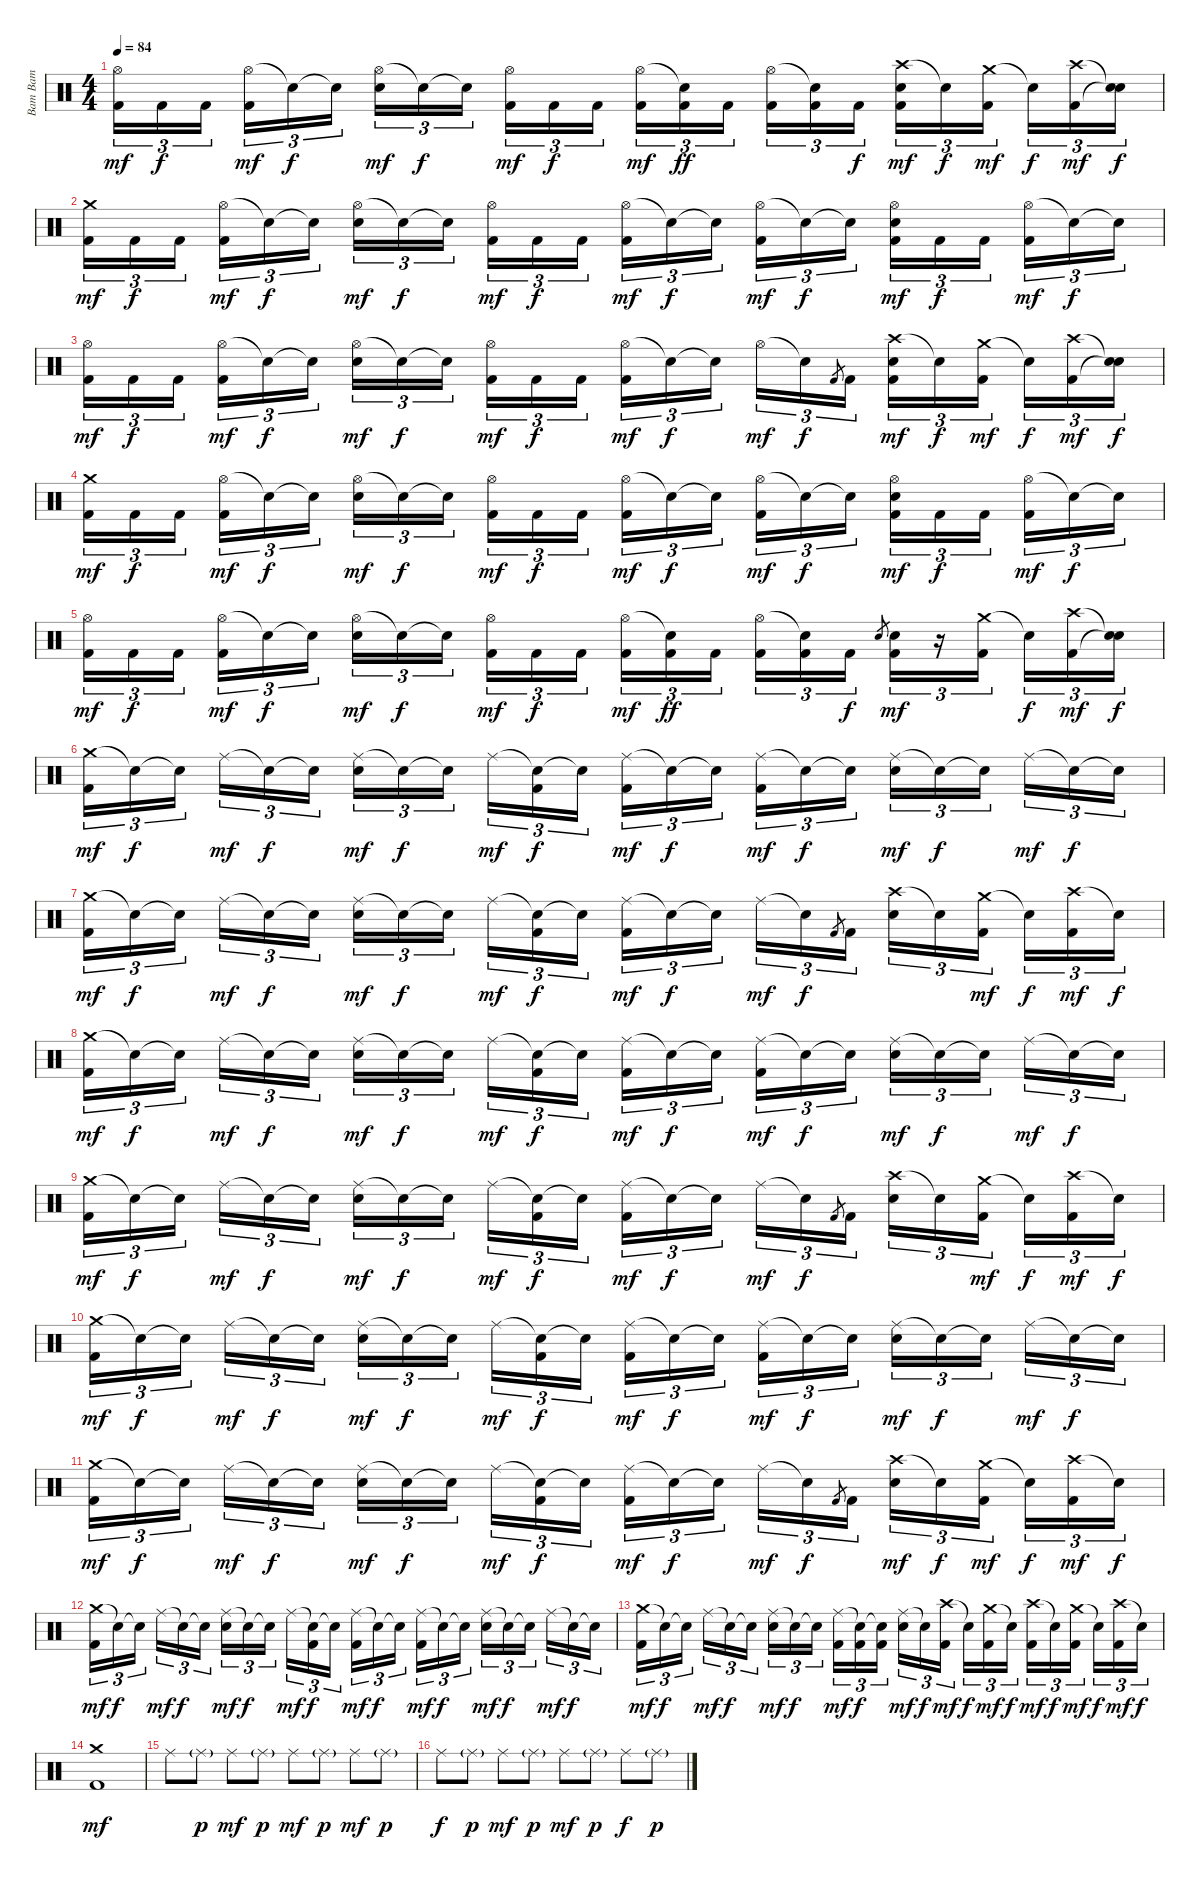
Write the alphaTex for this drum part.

\track ("Bam Bam" "Bam Bam") {instrument percussion}
\staff {score}
\articulation defaults
\ts (4 4)
\tempo 84
\clef neutral
\ks c
("Hi-Hat (open)" "Kick (hit) 2").16{tu (3 2) dy mf} "Kick (hit) 2".16{tu (3 2) dy f} "Kick (hit) 2".16{tu (3 2) beam splitsecondary} ("Hi-Hat (open)" "Kick (hit) 2").16{tu (3 2) dy mf} "Snare (hit)"{t}.16{tu (3 2) dy f} "Snare (hit)"{t}.16{tu (3 2)} ("Hi-Hat (open)" "Electric Snare (hit)").16{tu (3 2) dy mf} "Snare (hit)"{t}.16{tu (3 2) dy f} "Snare (hit)"{t}.16{tu (3 2) beam splitsecondary} ("Hi-Hat (open)" "Kick (hit) 2").16{tu (3 2) dy mf} "Kick (hit) 2".16{tu (3 2) dy f} "Kick (hit) 2".16{tu (3 2)} ("Hi-Hat (open)" "Kick (hit) 2").16{tu (3 2) dy mf} ("Snare (hit)"{t} "Kick (hit) 2").16{tu (3 2) dy ff} "Kick (hit) 2".16{tu (3 2) beam splitsecondary} ("Hi-Hat (open)" "Kick (hit) 2").16{tu (3 2)} ("Snare (hit)"{t} "Kick (hit) 2").16{tu (3 2)} "Kick (hit) 2".16{tu (3 2) dy f} ("Crash high (hit)" "Electric Snare (hit)" "Kick (hit) 2").16{tu (3 2) dy mf} "Snare (hit)"{t}.16{tu (3 2) dy f} ("Crash medium (hit)" "Kick (hit) 2").16{tu (3 2) dy mf beam splitsecondary} "Snare (hit)"{t}.16{tu (3 2) dy f} ("Crash high (hit)" "Kick (hit) 2").16{tu (3 2) dy mf} ("Snare (hit)"{t} "Snare (hit)"{t}).16{tu (3 2) dy f} |
("Crash medium (hit)" "Kick (hit) 2").16{tu (3 2) dy mf} "Kick (hit) 2".16{tu (3 2) dy f} "Kick (hit) 2".16{tu (3 2) beam splitsecondary} ("Hi-Hat (open)" "Kick (hit) 2").16{tu (3 2) dy mf} "Snare (hit)"{t}.16{tu (3 2) dy f} "Snare (hit)"{t}.16{tu (3 2)} ("Hi-Hat (open)" "Electric Snare (hit)").16{tu (3 2) dy mf} "Snare (hit)"{t}.16{tu (3 2) dy f} "Snare (hit)"{t}.16{tu (3 2) beam splitsecondary} ("Hi-Hat (open)" "Kick (hit) 2").16{tu (3 2) dy mf} "Kick (hit) 2".16{tu (3 2) dy f} "Kick (hit) 2".16{tu (3 2)} ("Hi-Hat (open)" "Kick (hit) 2").16{tu (3 2) dy mf} "Snare (hit)"{t}.16{tu (3 2) dy f} "Snare (hit)"{t}.16{tu (3 2) beam splitsecondary} ("Hi-Hat (open)" "Kick (hit) 2").16{tu (3 2) dy mf} "Snare (hit)"{t}.16{tu (3 2) dy f} "Snare (hit)"{t}.16{tu (3 2)} ("Hi-Hat (open)" "Electric Snare (hit)" "Kick (hit) 2").16{tu (3 2) dy mf} "Kick (hit) 2".16{tu (3 2) dy f} "Kick (hit) 2".16{tu (3 2) beam splitsecondary} ("Hi-Hat (open)" "Kick (hit) 2").16{tu (3 2) dy mf} "Snare (hit)"{t}.16{tu (3 2) dy f} "Snare (hit)"{t}.16{tu (3 2)} |
("Hi-Hat (open)" "Kick (hit) 2").16{tu (3 2) dy mf} "Kick (hit) 2".16{tu (3 2) dy f} "Kick (hit) 2".16{tu (3 2) beam splitsecondary} ("Hi-Hat (open)" "Kick (hit) 2").16{tu (3 2) dy mf} "Snare (hit)"{t}.16{tu (3 2) dy f} "Snare (hit)"{t}.16{tu (3 2)} ("Hi-Hat (open)" "Electric Snare (hit)").16{tu (3 2) dy mf} "Snare (hit)"{t}.16{tu (3 2) dy f} "Snare (hit)"{t}.16{tu (3 2) beam splitsecondary} ("Hi-Hat (open)" "Kick (hit) 2").16{tu (3 2) dy mf} "Kick (hit) 2".16{tu (3 2) dy f} "Kick (hit) 2".16{tu (3 2)} ("Hi-Hat (open)" "Kick (hit) 2").16{tu (3 2) dy mf} "Snare (hit)"{t}.16{tu (3 2) dy f} "Snare (hit)"{t}.16{tu (3 2) beam splitsecondary} "Hi-Hat (open)".16{tu (3 2) dy mf} "Snare (hit)"{t}.16{tu (3 2) dy f} "Kick (hit) 2".8{gr} "Kick (hit) 2".16{tu (3 2)} ("Crash high (hit)" "Electric Snare (hit)" "Kick (hit) 2").16{tu (3 2) dy mf} "Snare (hit)"{t}.16{tu (3 2) dy f} ("Crash medium (hit)" "Kick (hit) 2").16{tu (3 2) dy mf beam splitsecondary} "Snare (hit)"{t}.16{tu (3 2) dy f} ("Crash high (hit)" "Kick (hit) 2").16{tu (3 2) dy mf} ("Snare (hit)"{t} "Snare (hit)"{t}).16{tu (3 2) dy f} |
("Crash medium (hit)" "Kick (hit) 2").16{tu (3 2) dy mf} "Kick (hit) 2".16{tu (3 2) dy f} "Kick (hit) 2".16{tu (3 2) beam splitsecondary} ("Hi-Hat (open)" "Kick (hit) 2").16{tu (3 2) dy mf} "Snare (hit)"{t}.16{tu (3 2) dy f} "Snare (hit)"{t}.16{tu (3 2)} ("Hi-Hat (open)" "Electric Snare (hit)").16{tu (3 2) dy mf} "Snare (hit)"{t}.16{tu (3 2) dy f} "Snare (hit)"{t}.16{tu (3 2) beam splitsecondary} ("Hi-Hat (open)" "Kick (hit) 2").16{tu (3 2) dy mf} "Kick (hit) 2".16{tu (3 2) dy f} "Kick (hit) 2".16{tu (3 2)} ("Hi-Hat (open)" "Kick (hit) 2").16{tu (3 2) dy mf} "Snare (hit)"{t}.16{tu (3 2) dy f} "Snare (hit)"{t}.16{tu (3 2) beam splitsecondary} ("Hi-Hat (open)" "Kick (hit) 2").16{tu (3 2) dy mf} "Snare (hit)"{t}.16{tu (3 2) dy f} "Snare (hit)"{t}.16{tu (3 2)} ("Hi-Hat (open)" "Electric Snare (hit)" "Kick (hit) 2").16{tu (3 2) dy mf} "Kick (hit) 2".16{tu (3 2) dy f} "Kick (hit) 2".16{tu (3 2) beam splitsecondary} ("Hi-Hat (open)" "Kick (hit) 2").16{tu (3 2) dy mf} "Snare (hit)"{t}.16{tu (3 2) dy f} "Snare (hit)"{t}.16{tu (3 2)} |
("Hi-Hat (open)" "Kick (hit) 2").16{tu (3 2) dy mf} "Kick (hit) 2".16{tu (3 2) dy f} "Kick (hit) 2".16{tu (3 2) beam splitsecondary} ("Hi-Hat (open)" "Kick (hit) 2").16{tu (3 2) dy mf} "Snare (hit)"{t}.16{tu (3 2) dy f} "Snare (hit)"{t}.16{tu (3 2)} ("Hi-Hat (open)" "Electric Snare (hit)").16{tu (3 2) dy mf} "Snare (hit)"{t}.16{tu (3 2) dy f} "Snare (hit)"{t}.16{tu (3 2) beam splitsecondary} ("Hi-Hat (open)" "Kick (hit) 2").16{tu (3 2) dy mf} "Kick (hit) 2".16{tu (3 2) dy f} "Kick (hit) 2".16{tu (3 2)} ("Hi-Hat (open)" "Kick (hit) 2").16{tu (3 2) dy mf} ("Snare (hit)"{t} "Kick (hit) 2").16{tu (3 2) dy ff} "Kick (hit) 2".16{tu (3 2) beam splitsecondary} ("Hi-Hat (open)" "Kick (hit) 2").16{tu (3 2)} ("Snare (hit)"{t} "Kick (hit) 2").16{tu (3 2)} "Kick (hit) 2".16{tu (3 2) dy f} "Electric Snare (hit)".8{gr} ("Electric Snare (hit)" "Kick (hit) 2").16{tu (3 2) dy mf} r.16{tu (3 2)} ("Crash medium (hit)" "Kick (hit) 2").16{tu (3 2) beam splitsecondary} "Snare (hit)"{t}.16{tu (3 2) dy f} ("Crash high (hit)" "Kick (hit) 2").16{tu (3 2) dy mf} ("Snare (hit)"{t} "Snare (hit)"{t}).16{tu (3 2) dy f} |
("Crash medium (hit)" "Kick (hit) 2").16{tu (3 2) dy mf} "Snare (hit)"{t}.16{tu (3 2) dy f} "Snare (hit)"{t}.16{tu (3 2) beam splitsecondary} "Ride (middle)".16{tu (3 2) dy mf} "Snare (hit)"{t}.16{tu (3 2) dy f} "Snare (hit)"{t}.16{tu (3 2)} ("Ride (middle)" "Electric Snare (hit)").16{tu (3 2) dy mf} "Snare (hit)"{t}.16{tu (3 2) dy f} "Snare (hit)"{t}.16{tu (3 2) beam splitsecondary} "Ride (middle)".16{tu (3 2) dy mf} ("Snare (hit)"{t} "Kick (hit) 2").16{tu (3 2) dy f} "Snare (hit)"{t}.16{tu (3 2)} ("Ride (middle)" "Kick (hit) 2").16{tu (3 2) dy mf} "Snare (hit)"{t}.16{tu (3 2) dy f} "Snare (hit)"{t}.16{tu (3 2) beam splitsecondary} ("Ride (middle)" "Kick (hit) 2").16{tu (3 2) dy mf} "Snare (hit)"{t}.16{tu (3 2) dy f} "Snare (hit)"{t}.16{tu (3 2)} ("Ride (middle)" "Electric Snare (hit)").16{tu (3 2) dy mf} "Snare (hit)"{t}.16{tu (3 2) dy f} "Snare (hit)"{t}.16{tu (3 2) beam splitsecondary} "Ride (middle)".16{tu (3 2) dy mf} "Snare (hit)"{t}.16{tu (3 2) dy f} "Snare (hit)"{t}.16{tu (3 2)} |
("Crash medium (hit)" "Kick (hit) 2").16{tu (3 2) dy mf} "Snare (hit)"{t}.16{tu (3 2) dy f} "Snare (hit)"{t}.16{tu (3 2) beam splitsecondary} "Ride (middle)".16{tu (3 2) dy mf} "Snare (hit)"{t}.16{tu (3 2) dy f} "Snare (hit)"{t}.16{tu (3 2)} ("Ride (middle)" "Electric Snare (hit)").16{tu (3 2) dy mf} "Snare (hit)"{t}.16{tu (3 2) dy f} "Snare (hit)"{t}.16{tu (3 2) beam splitsecondary} "Ride (middle)".16{tu (3 2) dy mf} ("Snare (hit)"{t} "Kick (hit) 2").16{tu (3 2) dy f} "Snare (hit)"{t}.16{tu (3 2)} ("Ride (middle)" "Kick (hit) 2").16{tu (3 2) dy mf} "Snare (hit)"{t}.16{tu (3 2) dy f} "Snare (hit)"{t}.16{tu (3 2) beam splitsecondary} "Ride (middle)".16{tu (3 2) dy mf} "Snare (hit)"{t}.16{tu (3 2) dy f} "Kick (hit) 2".8{gr} "Kick (hit) 2".16{tu (3 2)} ("Crash high (hit)" "Electric Snare (hit)").16{tu (3 2)} "Snare (hit)"{t}.16{tu (3 2)} ("Crash medium (hit)" "Kick (hit) 2").16{tu (3 2) dy mf beam splitsecondary} "Snare (hit)"{t}.16{tu (3 2) dy f} ("Crash high (hit)" "Kick (hit) 2").16{tu (3 2) dy mf} "Snare (hit)"{t}.16{tu (3 2) dy f} |
("Crash medium (hit)" "Kick (hit) 2").16{tu (3 2) dy mf} "Snare (hit)"{t}.16{tu (3 2) dy f} "Snare (hit)"{t}.16{tu (3 2) beam splitsecondary} "Ride (middle)".16{tu (3 2) dy mf} "Snare (hit)"{t}.16{tu (3 2) dy f} "Snare (hit)"{t}.16{tu (3 2)} ("Ride (middle)" "Electric Snare (hit)").16{tu (3 2) dy mf} "Snare (hit)"{t}.16{tu (3 2) dy f} "Snare (hit)"{t}.16{tu (3 2) beam splitsecondary} "Ride (middle)".16{tu (3 2) dy mf} ("Snare (hit)"{t} "Kick (hit) 2").16{tu (3 2) dy f} "Snare (hit)"{t}.16{tu (3 2)} ("Ride (middle)" "Kick (hit) 2").16{tu (3 2) dy mf} "Snare (hit)"{t}.16{tu (3 2) dy f} "Snare (hit)"{t}.16{tu (3 2) beam splitsecondary} ("Ride (middle)" "Kick (hit) 2").16{tu (3 2) dy mf} "Snare (hit)"{t}.16{tu (3 2) dy f} "Snare (hit)"{t}.16{tu (3 2)} ("Ride (middle)" "Electric Snare (hit)").16{tu (3 2) dy mf} "Snare (hit)"{t}.16{tu (3 2) dy f} "Snare (hit)"{t}.16{tu (3 2) beam splitsecondary} "Ride (middle)".16{tu (3 2) dy mf} "Snare (hit)"{t}.16{tu (3 2) dy f} "Snare (hit)"{t}.16{tu (3 2)} |
("Crash medium (hit)" "Kick (hit) 2").16{tu (3 2) dy mf} "Snare (hit)"{t}.16{tu (3 2) dy f} "Snare (hit)"{t}.16{tu (3 2) beam splitsecondary} "Ride (middle)".16{tu (3 2) dy mf} "Snare (hit)"{t}.16{tu (3 2) dy f} "Snare (hit)"{t}.16{tu (3 2)} ("Ride (middle)" "Electric Snare (hit)").16{tu (3 2) dy mf} "Snare (hit)"{t}.16{tu (3 2) dy f} "Snare (hit)"{t}.16{tu (3 2) beam splitsecondary} "Ride (middle)".16{tu (3 2) dy mf} ("Snare (hit)"{t} "Kick (hit) 2").16{tu (3 2) dy f} "Snare (hit)"{t}.16{tu (3 2)} ("Ride (middle)" "Kick (hit) 2").16{tu (3 2) dy mf} "Snare (hit)"{t}.16{tu (3 2) dy f} "Snare (hit)"{t}.16{tu (3 2) beam splitsecondary} "Ride (middle)".16{tu (3 2) dy mf} "Snare (hit)"{t}.16{tu (3 2) dy f} "Kick (hit) 2".8{gr} "Kick (hit) 2".16{tu (3 2)} ("Crash high (hit)" "Electric Snare (hit)").16{tu (3 2)} "Snare (hit)"{t}.16{tu (3 2)} ("Crash medium (hit)" "Kick (hit) 2").16{tu (3 2) dy mf beam splitsecondary} "Snare (hit)"{t}.16{tu (3 2) dy f} ("Crash high (hit)" "Kick (hit) 2").16{tu (3 2) dy mf} "Snare (hit)"{t}.16{tu (3 2) dy f} |
("Crash medium (hit)" "Kick (hit) 2").16{tu (3 2) dy mf} "Snare (hit)"{t}.16{tu (3 2) dy f} "Snare (hit)"{t}.16{tu (3 2) beam splitsecondary} "Ride (middle)".16{tu (3 2) dy mf} "Snare (hit)"{t}.16{tu (3 2) dy f} "Snare (hit)"{t}.16{tu (3 2)} ("Ride (middle)" "Electric Snare (hit)").16{tu (3 2) dy mf} "Snare (hit)"{t}.16{tu (3 2) dy f} "Snare (hit)"{t}.16{tu (3 2) beam splitsecondary} "Ride (middle)".16{tu (3 2) dy mf} ("Snare (hit)"{t} "Kick (hit) 2").16{tu (3 2) dy f} "Snare (hit)"{t}.16{tu (3 2)} ("Ride (middle)" "Kick (hit) 2").16{tu (3 2) dy mf} "Snare (hit)"{t}.16{tu (3 2) dy f} "Snare (hit)"{t}.16{tu (3 2) beam splitsecondary} ("Ride (middle)" "Kick (hit) 2").16{tu (3 2) dy mf} "Snare (hit)"{t}.16{tu (3 2) dy f} "Snare (hit)"{t}.16{tu (3 2)} ("Ride (middle)" "Electric Snare (hit)").16{tu (3 2) dy mf} "Snare (hit)"{t}.16{tu (3 2) dy f} "Snare (hit)"{t}.16{tu (3 2) beam splitsecondary} "Ride (middle)".16{tu (3 2) dy mf} "Snare (hit)"{t}.16{tu (3 2) dy f} "Snare (hit)"{t}.16{tu (3 2)} |
("Crash medium (hit)" "Kick (hit) 2").16{tu (3 2) dy mf} "Snare (hit)"{t}.16{tu (3 2) dy f} "Snare (hit)"{t}.16{tu (3 2) beam splitsecondary} "Ride (middle)".16{tu (3 2) dy mf} "Snare (hit)"{t}.16{tu (3 2) dy f} "Snare (hit)"{t}.16{tu (3 2)} ("Ride (middle)" "Electric Snare (hit)").16{tu (3 2) dy mf} "Snare (hit)"{t}.16{tu (3 2) dy f} "Snare (hit)"{t}.16{tu (3 2) beam splitsecondary} "Ride (middle)".16{tu (3 2) dy mf} ("Snare (hit)"{t} "Kick (hit) 2").16{tu (3 2) dy f} "Snare (hit)"{t}.16{tu (3 2)} ("Ride (middle)" "Kick (hit) 2").16{tu (3 2) dy mf} "Snare (hit)"{t}.16{tu (3 2) dy f} "Snare (hit)"{t}.16{tu (3 2) beam splitsecondary} "Ride (middle)".16{tu (3 2) dy mf} "Snare (hit)"{t}.16{tu (3 2) dy f} "Kick (hit) 2".8{gr} "Kick (hit) 2".16{tu (3 2)} ("Crash high (hit)" "Electric Snare (hit)").16{tu (3 2) dy mf} "Snare (hit)"{t}.16{tu (3 2) dy f} ("Crash medium (hit)" "Kick (hit) 2").16{tu (3 2) dy mf beam splitsecondary} "Snare (hit)"{t}.16{tu (3 2) dy f} ("Crash high (hit)" "Kick (hit) 2").16{tu (3 2) dy mf} "Snare (hit)"{t}.16{tu (3 2) dy f} |
("Crash medium (hit)" "Kick (hit) 2").16{tu (3 2) dy mf} "Snare (hit)"{t}.16{tu (3 2) dy f} "Snare (hit)"{t}.16{tu (3 2) beam splitsecondary} "Ride (middle)".16{tu (3 2) dy mf} "Snare (hit)"{t}.16{tu (3 2) dy f} "Snare (hit)"{t}.16{tu (3 2)} ("Ride (middle)" "Electric Snare (hit)").16{tu (3 2) dy mf} "Snare (hit)"{t}.16{tu (3 2) dy f} "Snare (hit)"{t}.16{tu (3 2) beam splitsecondary} "Ride (middle)".16{tu (3 2) dy mf} ("Snare (hit)"{t} "Kick (hit) 2").16{tu (3 2) dy f} "Snare (hit)"{t}.16{tu (3 2)} ("Ride (middle)" "Kick (hit) 2").16{tu (3 2) dy mf} "Snare (hit)"{t}.16{tu (3 2) dy f} "Snare (hit)"{t}.16{tu (3 2) beam splitsecondary} ("Ride (middle)" "Kick (hit) 2").16{tu (3 2) dy mf} "Snare (hit)"{t}.16{tu (3 2) dy f} "Snare (hit)"{t}.16{tu (3 2)} ("Ride (middle)" "Electric Snare (hit)").16{tu (3 2) dy mf} "Snare (hit)"{t}.16{tu (3 2) dy f} "Snare (hit)"{t}.16{tu (3 2) beam splitsecondary} "Ride (middle)".16{tu (3 2) dy mf} "Snare (hit)"{t}.16{tu (3 2) dy f} "Snare (hit)"{t}.16{tu (3 2)} |
("Crash medium (hit)" "Kick (hit) 2").16{tu (3 2) dy mf} "Snare (hit)"{t}.16{tu (3 2) dy f} "Snare (hit)"{t}.16{tu (3 2) beam splitsecondary} "Ride (middle)".16{tu (3 2) dy mf} "Snare (hit)"{t}.16{tu (3 2) dy f} "Snare (hit)"{t}.16{tu (3 2)} ("Ride (middle)" "Electric Snare (hit)").16{tu (3 2) dy mf} "Snare (hit)"{t}.16{tu (3 2) dy f} "Snare (hit)"{t}.16{tu (3 2) beam splitsecondary} ("Ride (middle)" "Kick (hit) 2").16{tu (3 2) dy mf} ("Snare (hit)"{t} "Kick (hit) 2").16{tu (3 2) dy f} ("Snare (hit)"{t} "Kick (hit) 2").16{tu (3 2)} ("Ride (middle)" "Electric Snare (hit)").16{tu (3 2) dy mf} "Snare (hit)"{t}.16{tu (3 2) dy f} ("Crash high (hit)" "Kick (hit) 2").16{tu (3 2) dy mf beam splitsecondary} "Snare (hit)"{t}.16{tu (3 2) dy f} ("Crash medium (hit)" "Kick (hit) 2").16{tu (3 2) dy mf} "Snare (hit)"{t}.16{tu (3 2) dy f} ("Crash high (hit)" "Kick (hit) 2").16{tu (3 2) dy mf} "Snare (hit)"{t}.16{tu (3 2) dy f} ("Crash medium (hit)" "Kick (hit) 2").16{tu (3 2) dy mf beam splitsecondary} "Snare (hit)"{t}.16{tu (3 2) dy f} ("Crash high (hit)" "Kick (hit) 2").16{tu (3 2) dy mf} "Snare (hit)"{t}.16{tu (3 2) dy f} |
("Crash medium (hit)" "Kick (hit) 2").1{dy mf} |
"Ride (middle)".8 "Ride (middle)"{g}.8{dy p} "Ride (middle)".8{dy mf} "Ride (middle)"{g}.8{dy p} "Ride (middle)".8{dy mf} "Ride (middle)"{g}.8{dy p} "Ride (middle)".8{dy mf} "Ride (middle)"{g}.8{dy p} |
"Ride (middle)".8{dy f} "Ride (middle)"{g}.8{dy p} "Ride (middle)".8{dy mf} "Ride (middle)"{g}.8{dy p} "Ride (middle)".8{dy mf} "Ride (middle)"{g}.8{dy p} "Ride (middle)".8{dy f} "Ride (middle)"{g}.8{dy p}
